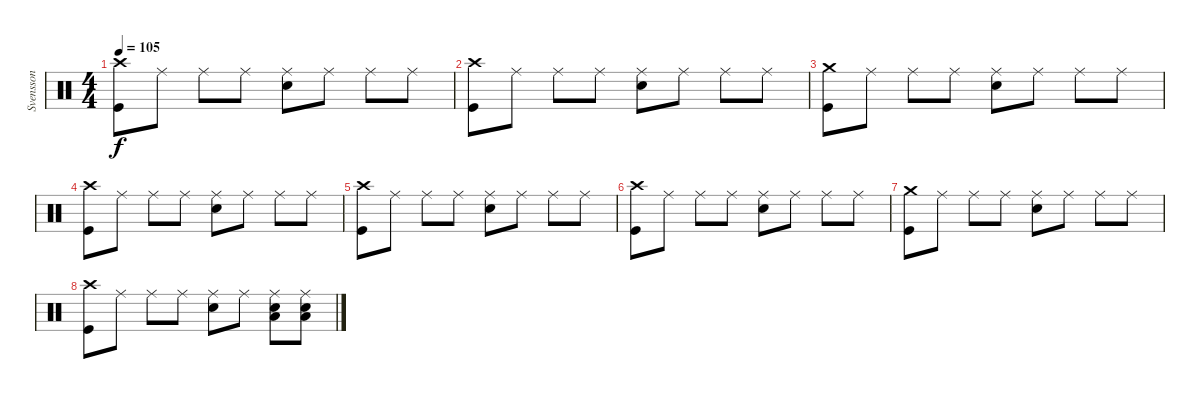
\track ("Svensson" "Svensson") {instrument percussion}
\staff {score}
\articulation defaults
\ts (4 4)
\tempo 105
\clef neutral
\ks c
("Crash high (hit)" "Kick (hit)").8{dy f} "Ride (middle)".8 "Ride (middle)".8 "Ride (middle)".8 ("Ride (middle)" "Snare (hit) 2").8 "Ride (middle)".8 "Ride (middle)".8 "Ride (middle)".8 |
("Crash high (hit)" "Kick (hit)").8 "Ride (middle)".8 "Ride (middle)".8 "Ride (middle)".8 ("Ride (middle)" "Snare (hit) 2").8 "Ride (middle)".8 "Ride (middle)".8 "Ride (middle)".8 |
("Crash medium (hit)" "Kick (hit)").8 "Ride (middle)".8 "Ride (middle)".8 "Ride (middle)".8 ("Ride (middle)" "Snare (hit) 2").8 "Ride (middle)".8 "Ride (middle)".8 "Ride (middle)".8 |
("Crash high (hit)" "Kick (hit)").8 "Ride (middle)".8 "Ride (middle)".8 "Ride (middle)".8 ("Ride (middle)" "Snare (hit) 2").8 "Ride (middle)".8 "Ride (middle)".8 "Ride (middle)".8 |
("Crash high (hit)" "Kick (hit)").8 "Ride (middle)".8 "Ride (middle)".8 "Ride (middle)".8 ("Ride (middle)" "Snare (hit) 2").8 "Ride (middle)".8 "Ride (middle)".8 "Ride (middle)".8 |
("Crash high (hit)" "Kick (hit)").8 "Ride (middle)".8 "Ride (middle)".8 "Ride (middle)".8 ("Ride (middle)" "Snare (hit) 2").8 "Ride (middle)".8 "Ride (middle)".8 "Ride (middle)".8 |
("Crash medium (hit)" "Kick (hit)").8 "Ride (middle)".8 "Ride (middle)".8 "Ride (middle)".8 ("Ride (middle)" "Snare (hit) 2").8 "Ride (middle)".8 "Ride (middle)".8 "Ride (middle)".8 |
("Crash high (hit)" "Kick (hit)").8 "Ride (middle)".8 "Ride (middle)".8 "Ride (middle)".8 ("Ride (middle)" "Snare (hit) 2").8 "Ride (middle)".8 ("Ride (middle)" "Low Tom (hit)" "Snare (hit) 2").8 ("Ride (middle)" "Low Tom (hit)" "Snare (hit) 2").8
